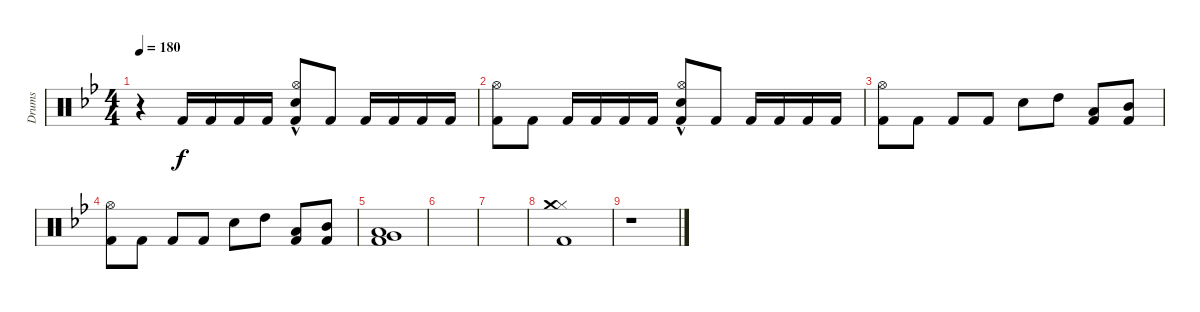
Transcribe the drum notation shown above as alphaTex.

\defaultSystemsLayout 4
\bracketExtendMode groupsimilarinstruments
\otherSystemsTrackNameOrientation horizontal
\track ("Drumkit" "Drums") {instrument percussion}
\staff {score}
\articulation defaults
\ts (4 4)
\tempo 180
\clef neutral
\scale
0.333333
\ks bb
r.4{dy f} "Kick (hit) 2"{acc forcenatural}.16 "Kick (hit) 2"{acc forcenatural}.16 "Kick (hit) 2"{acc forcenatural}.16 "Kick (hit) 2"{acc forcenatural}.16 ("Kick (hit) 2"{acc forcenatural} "Hi-Hat (open)"{acc forcenatural} "Snare (hit) 2"{hac acc forcenatural}).8 "Kick (hit) 2"{acc forcenatural}.8 "Kick (hit) 2"{acc forcenatural}.16 "Kick (hit) 2"{acc forcenatural}.16 "Kick (hit) 2"{acc forcenatural}.16 "Kick (hit) 2"{acc forcenatural}.16 |
\scale
0.333333 ("Kick (hit) 2"{acc forcenatural} "Hi-Hat (open)"{acc forcenatural}).8 "Kick (hit) 2"{acc forcenatural}.8 "Kick (hit) 2"{acc forcenatural}.16 "Kick (hit) 2"{acc forcenatural}.16 "Kick (hit) 2"{acc forcenatural}.16 "Kick (hit) 2"{acc forcenatural}.16 ("Kick (hit) 2"{acc forcenatural} "Hi-Hat (open)"{acc forcenatural} "Snare (hit) 2"{hac acc forcenatural}).8 "Kick (hit) 2"{acc forcenatural}.8 "Kick (hit) 2"{acc forcenatural}.16 "Kick (hit) 2"{acc forcenatural}.16 "Kick (hit) 2"{acc forcenatural}.16 "Kick (hit) 2"{acc forcenatural}.16 |
\scale
0.333333 ("Kick (hit) 2"{acc forcenatural} "Hi-Hat (open)"{acc forcenatural}).8 "Kick (hit) 2"{acc forcenatural}.8 "Kick (hit) 2"{acc forcenatural}.8 "Kick (hit) 2"{acc forcenatural}.8 "Snare (hit) 2"{acc forcenatural}.8 "High Tom (hit)"{acc forcenatural}.8 ("Low Tom (hit)"{acc forcenatural} "Kick (hit) 2"{acc forcenatural}).8 ("Mid Tom (hit)"{acc forcenatural} "Kick (hit) 2"{acc forcenatural}).8 |
\scale
0.333333 ("Kick (hit) 2"{acc forcenatural} "Hi-Hat (open)"{acc forcenatural}).8 "Kick (hit) 2"{acc forcenatural}.8 "Kick (hit) 2"{acc forcenatural}.8 "Kick (hit) 2"{acc forcenatural}.8 "Snare (hit) 2"{acc forcenatural}.8 "High Tom (hit)"{acc forcenatural}.8 ("Low Tom (hit)"{acc forcenatural} "Kick (hit) 2"{acc forcenatural}).8 ("Mid Tom (hit)"{acc forcenatural} "Kick (hit) 2"{acc forcenatural}).8 |
\scale
0.333333 ("Kick (hit) 2"{acc forcenatural} "Very Low Tom (hit)"{acc forcenatural} "Low Tom (hit)"{acc forcenatural}).1 |
\scale
0.333333 |
\scale
0.333333 |
\scale
0.333333 ("Hi-Hat (closed)"{acc forcenatural} "Crash medium (hit)"{acc forcenatural} "Kick (hit) 2"{acc forcenatural}).1 |
\scale
0.333333 r.1 |
\scale
0.333333 |
\scale
0.333333 |
\scale
0.333333 |
\scale
0.333333 |
\scale
0.333333 |
\scale
0.333333 |
\scale
0.333333
